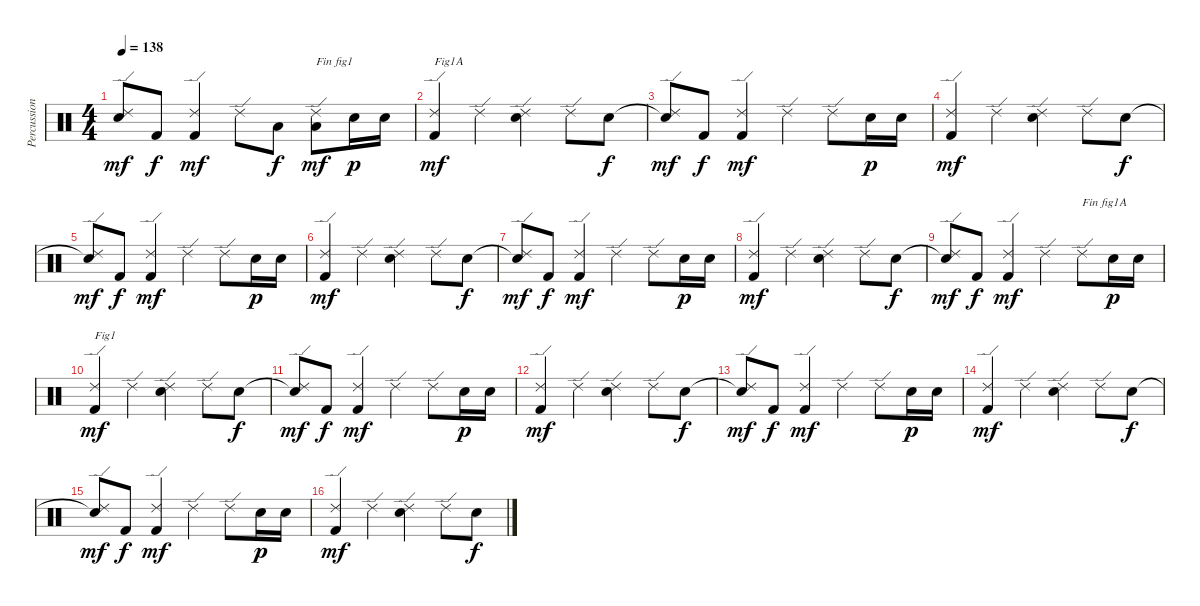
\track ("Percussions" "Percussion") {instrument percussion}
\staff {score}
\articulation defaults
\ts (4 4)
\tempo 138
\clef neutral
\ks c
("Snare (hit)"{t} "Ride (edge) 2").8{dy mf} "Kick (hit) 2".8{dy f} ("Kick (hit) 2" "Ride (edge) 2").4{dy mf} "Ride (edge) 2".8 "Low Floor Tom (hit)".8{dy f} ("Low Floor Tom (hit)" "Ride (edge) 2").8{txt "Fin fig1" dy mf} "Snare (hit) 2".16{dy p} "Snare (hit) 2".16 |
("Kick (hit) 2" "Ride (edge) 2").4{txt "Fig1A" dy mf} "Ride (edge) 2".4 ("Snare (hit) 2" "Ride (edge) 2").4 "Ride (edge) 2".8 "Snare (hit) 2".8{dy f} |
("Snare (hit)"{t} "Ride (edge) 2").8{dy mf} "Kick (hit) 2".8{dy f} ("Kick (hit) 2" "Ride (edge) 2").4{dy mf} "Ride (edge) 2".4 "Ride (edge) 2".8 "Snare (hit) 2".16{dy p} "Snare (hit) 2".16 |
("Kick (hit) 2" "Ride (edge) 2").4{dy mf} "Ride (edge) 2".4 ("Snare (hit) 2" "Ride (edge) 2").4 "Ride (edge) 2".8 "Snare (hit) 2".8{dy f} |
("Snare (hit)"{t} "Ride (edge) 2").8{dy mf} "Kick (hit) 2".8{dy f} ("Kick (hit) 2" "Ride (edge) 2").4{dy mf} "Ride (edge) 2".4 "Ride (edge) 2".8 "Snare (hit) 2".16{dy p} "Snare (hit) 2".16 |
("Kick (hit) 2" "Ride (edge) 2").4{dy mf} "Ride (edge) 2".4 ("Snare (hit) 2" "Ride (edge) 2").4 "Ride (edge) 2".8 "Snare (hit) 2".8{dy f} |
("Snare (hit)"{t} "Ride (edge) 2").8{dy mf} "Kick (hit) 2".8{dy f} ("Kick (hit) 2" "Ride (edge) 2").4{dy mf} "Ride (edge) 2".4 "Ride (edge) 2".8 "Snare (hit) 2".16{dy p} "Snare (hit) 2".16 |
("Kick (hit) 2" "Ride (edge) 2").4{dy mf} "Ride (edge) 2".4 ("Snare (hit) 2" "Ride (edge) 2").4 "Ride (edge) 2".8 "Snare (hit) 2".8{dy f} |
("Snare (hit)"{t} "Ride (edge) 2").8{dy mf} "Kick (hit) 2".8{dy f} ("Kick (hit) 2" "Ride (edge) 2").4{dy mf} "Ride (edge) 2".4 "Ride (edge) 2".8{txt "Fin fig1A"} "Snare (hit) 2".16{dy p} "Snare (hit) 2".16 |
("Kick (hit) 2" "Ride (edge) 2").4{txt "Fig1" dy mf} "Ride (edge) 2".4 ("Snare (hit) 2" "Ride (edge) 2").4 "Ride (edge) 2".8 "Snare (hit) 2".8{dy f} |
("Snare (hit)"{t} "Ride (edge) 2").8{dy mf} "Kick (hit) 2".8{dy f} ("Kick (hit) 2" "Ride (edge) 2").4{dy mf} "Ride (edge) 2".4 "Ride (edge) 2".8 "Snare (hit) 2".16{dy p} "Snare (hit) 2".16 |
("Kick (hit) 2" "Ride (edge) 2").4{dy mf} "Ride (edge) 2".4 ("Snare (hit) 2" "Ride (edge) 2").4 "Ride (edge) 2".8 "Snare (hit) 2".8{dy f} |
("Snare (hit)"{t} "Ride (edge) 2").8{dy mf} "Kick (hit) 2".8{dy f} ("Kick (hit) 2" "Ride (edge) 2").4{dy mf} "Ride (edge) 2".4 "Ride (edge) 2".8 "Snare (hit) 2".16{dy p} "Snare (hit) 2".16 |
("Kick (hit) 2" "Ride (edge) 2").4{dy mf} "Ride (edge) 2".4 ("Snare (hit) 2" "Ride (edge) 2").4 "Ride (edge) 2".8 "Snare (hit) 2".8{dy f} |
("Snare (hit)"{t} "Ride (edge) 2").8{dy mf} "Kick (hit) 2".8{dy f} ("Kick (hit) 2" "Ride (edge) 2").4{dy mf} "Ride (edge) 2".4 "Ride (edge) 2".8 "Snare (hit) 2".16{dy p} "Snare (hit) 2".16 |
("Kick (hit) 2" "Ride (edge) 2").4{dy mf} "Ride (edge) 2".4 ("Snare (hit) 2" "Ride (edge) 2").4 "Ride (edge) 2".8 "Snare (hit) 2".8{dy f}
